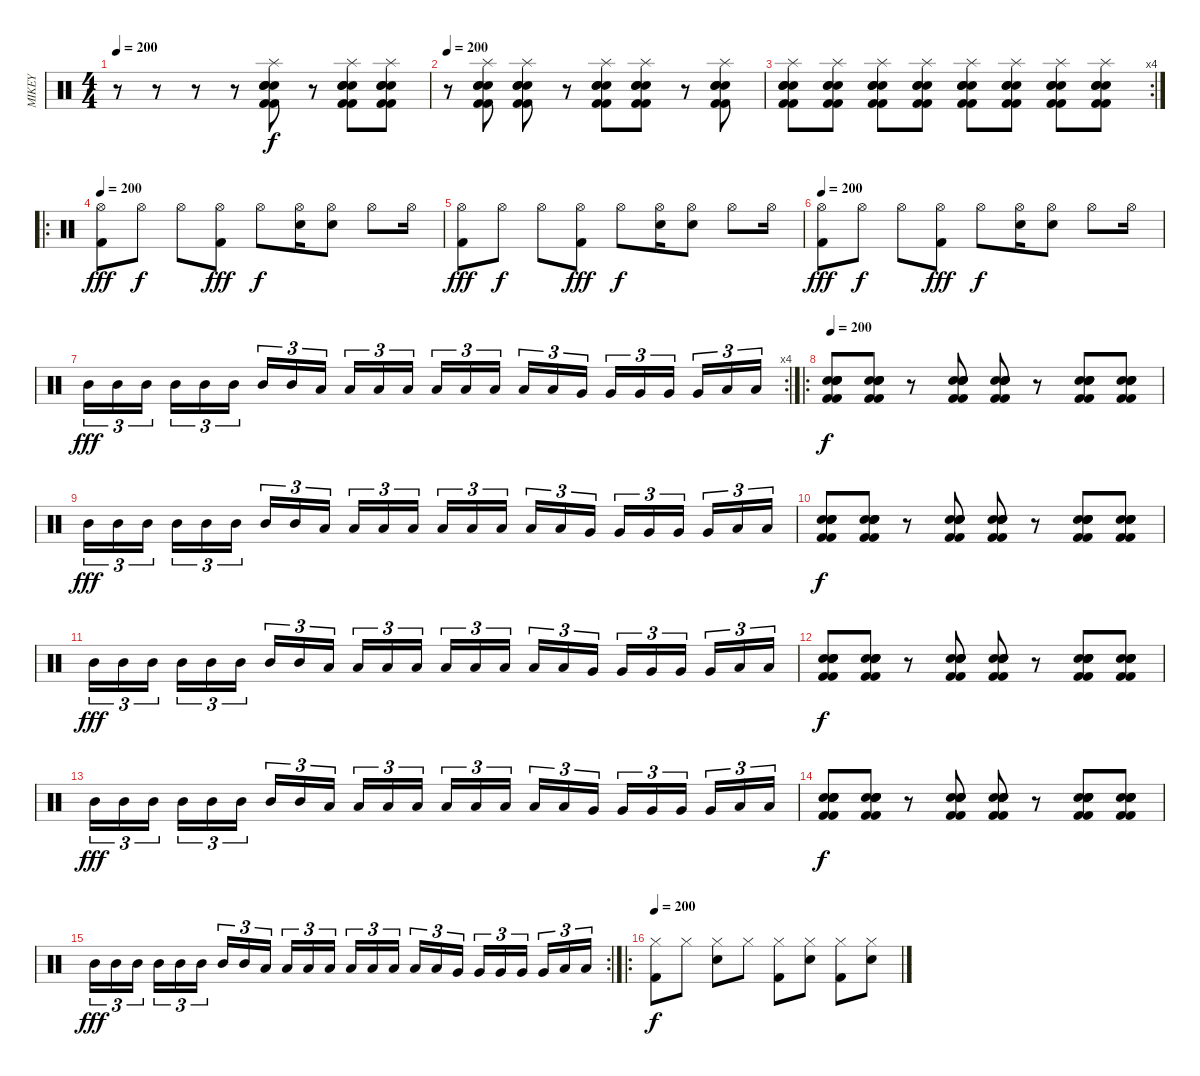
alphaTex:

\track ("MIKEY" "MIKEY") {instrument percussion}
\staff {score}
\articulation defaults
\ts (4 4)
\tempo 200
\clef neutral
\ks c
r.8{dy f} r.8 r.8 r.8 ("Splash (hit)" "Snare (hit) 2" "Electric Snare (hit)" "Kick (hit) 2" "Snare (hit) 2" "Kick (hit) 2").8 r.8 ("Splash (hit)" "Snare (hit) 2" "Electric Snare (hit)" "Kick (hit) 2" "Snare (hit) 2" "Kick (hit) 2").8 ("Splash (hit)" "Snare (hit) 2" "Electric Snare (hit)" "Kick (hit) 2" "Snare (hit) 2" "Kick (hit) 2").8 |
\tempo 200
r.8 ("Splash (hit)" "Snare (hit) 2" "Electric Snare (hit)" "Kick (hit) 2" "Snare (hit) 2" "Kick (hit) 2").8 ("Splash (hit)" "Snare (hit) 2" "Electric Snare (hit)" "Kick (hit) 2" "Snare (hit) 2" "Kick (hit) 2").8 r.8 ("Splash (hit)" "Snare (hit) 2" "Electric Snare (hit)" "Kick (hit) 2" "Snare (hit) 2" "Kick (hit) 2").8 ("Splash (hit)" "Snare (hit) 2" "Electric Snare (hit)" "Kick (hit) 2" "Snare (hit) 2" "Kick (hit) 2").8 r.8 ("Splash (hit)" "Snare (hit) 2" "Electric Snare (hit)" "Kick (hit) 2" "Snare (hit) 2" "Kick (hit) 2").8 |
\rc 4
("Splash (hit)" "Snare (hit) 2" "Electric Snare (hit)" "Kick (hit) 2" "Snare (hit) 2" "Kick (hit) 2").8 ("Splash (hit)" "Snare (hit) 2" "Electric Snare (hit)" "Kick (hit) 2" "Snare (hit) 2" "Kick (hit) 2").8 ("Splash (hit)" "Snare (hit) 2" "Electric Snare (hit)" "Kick (hit) 2" "Snare (hit) 2" "Kick (hit) 2").8 ("Splash (hit)" "Snare (hit) 2" "Electric Snare (hit)" "Kick (hit) 2" "Snare (hit) 2" "Kick (hit) 2").8 ("Splash (hit)" "Snare (hit) 2" "Electric Snare (hit)" "Kick (hit) 2" "Snare (hit) 2" "Kick (hit) 2").8 ("Splash (hit)" "Snare (hit) 2" "Electric Snare (hit)" "Kick (hit) 2" "Snare (hit) 2" "Kick (hit) 2").8 ("Splash (hit)" "Snare (hit) 2" "Electric Snare (hit)" "Kick (hit) 2" "Snare (hit) 2" "Kick (hit) 2").8 ("Splash (hit)" "Snare (hit) 2" "Electric Snare (hit)" "Kick (hit) 2" "Snare (hit) 2" "Kick (hit) 2").8 |
\ro
\tempo 200
("Kick (hit) 2" "Hi-Hat (open)").8{dy fff} "Hi-Hat (open)".8{dy f} "Hi-Hat (open)".8 ("Kick (hit) 2" "Hi-Hat (open)").8{dy fff} "Hi-Hat (open)".8{dy f} ("Electric Snare (hit)" "Hi-Hat (open)").16 ("Electric Snare (hit)" "Hi-Hat (open)").8 "Hi-Hat (open)".8 "Hi-Hat (open)".16 |
("Kick (hit) 2" "Hi-Hat (open)").8{dy fff} "Hi-Hat (open)".8{dy f} "Hi-Hat (open)".8 ("Kick (hit) 2" "Hi-Hat (open)").8{dy fff} "Hi-Hat (open)".8{dy f} ("Electric Snare (hit)" "Hi-Hat (open)").16 ("Electric Snare (hit)" "Hi-Hat (open)").8 "Hi-Hat (open)".8 "Hi-Hat (open)".16 |
\tempo 200
("Kick (hit) 2" "Hi-Hat (open)").8{dy fff} "Hi-Hat (open)".8{dy f} "Hi-Hat (open)".8 ("Kick (hit) 2" "Hi-Hat (open)").8{dy fff} "Hi-Hat (open)".8{dy f} ("Electric Snare (hit)" "Hi-Hat (open)").16 ("Electric Snare (hit)" "Hi-Hat (open)").8 "Hi-Hat (open)".8 "Hi-Hat (open)".16 |
\rc 4 "Mid Tom (hit)".16{tu (3 2) dy fff} "Mid Tom (hit)".16{tu (3 2)} "Mid Tom (hit)".16{tu (3 2)} "Mid Tom (hit)".16{tu (3 2)} "Mid Tom (hit)".16{tu (3 2)} "Mid Tom (hit)".16{tu (3 2)} "Mid Tom (hit)".16{tu (3 2)} "Mid Tom (hit)".16{tu (3 2)} "Low Tom (hit)".16{tu (3 2)} "Low Tom (hit)".16{tu (3 2)} "Low Tom (hit)".16{tu (3 2)} "Low Tom (hit)".16{tu (3 2)} "Low Tom (hit)".16{tu (3 2)} "Low Tom (hit)".16{tu (3 2)} "Low Tom (hit)".16{tu (3 2)} "Low Tom (hit)".16{tu (3 2)} "Low Tom (hit)".16{tu (3 2)} "Very Low Tom (hit)".16{tu (3 2)} "Very Low Tom (hit)".16{tu (3 2)} "Very Low Tom (hit)".16{tu (3 2)} "Very Low Tom (hit)".16{tu (3 2)} "Very Low Tom (hit)".16{tu (3 2)} "Low Floor Tom (hit)".16{tu (3 2)} "Low Floor Tom (hit)".16{tu (3 2)}
|
\ro
\tempo 200
("Snare (hit) 2" "Snare (hit) 2" "Kick (hit) 2" "Electric Snare (hit)" "Snare (hit) 2" "Kick (hit) 2").8{dy f} ("Snare (hit) 2" "Snare (hit) 2" "Kick (hit) 2" "Electric Snare (hit)" "Snare (hit) 2" "Kick (hit) 2").8 r.8 ("Snare (hit) 2" "Snare (hit) 2" "Kick (hit) 2" "Electric Snare (hit)" "Snare (hit) 2" "Kick (hit) 2").8 ("Snare (hit) 2" "Snare (hit) 2" "Kick (hit) 2" "Electric Snare (hit)" "Snare (hit) 2" "Kick (hit) 2").8 r.8 ("Snare (hit) 2" "Snare (hit) 2" "Kick (hit) 2" "Electric Snare (hit)" "Snare (hit) 2" "Kick (hit) 2").8 ("Snare (hit) 2" "Snare (hit) 2" "Kick (hit) 2" "Electric Snare (hit)" "Snare (hit) 2" "Kick (hit) 2").8 |
"Mid Tom (hit)".16{tu (3 2) dy fff} "Mid Tom (hit)".16{tu (3 2)} "Mid Tom (hit)".16{tu (3 2)} "Mid Tom (hit)".16{tu (3 2)} "Mid Tom (hit)".16{tu (3 2)} "Mid Tom (hit)".16{tu (3 2)} "Mid Tom (hit)".16{tu (3 2)} "Mid Tom (hit)".16{tu (3 2)} "Low Tom (hit)".16{tu (3 2)} "Low Tom (hit)".16{tu (3 2)} "Low Tom (hit)".16{tu (3 2)} "Low Tom (hit)".16{tu (3 2)} "Low Tom (hit)".16{tu (3 2)} "Low Tom (hit)".16{tu (3 2)} "Low Tom (hit)".16{tu (3 2)} "Low Tom (hit)".16{tu (3 2)} "Low Tom (hit)".16{tu (3 2)} "Very Low Tom (hit)".16{tu (3 2)} "Very Low Tom (hit)".16{tu (3 2)} "Very Low Tom (hit)".16{tu (3 2)} "Very Low Tom (hit)".16{tu (3 2)} "Very Low Tom (hit)".16{tu (3 2)} "Low Floor Tom (hit)".16{tu (3 2)} "Low Floor Tom (hit)".16{tu (3 2)} |
("Snare (hit) 2" "Snare (hit) 2" "Kick (hit) 2" "Electric Snare (hit)" "Snare (hit) 2" "Kick (hit) 2").8{dy f} ("Snare (hit) 2" "Snare (hit) 2" "Kick (hit) 2" "Electric Snare (hit)" "Snare (hit) 2" "Kick (hit) 2").8 r.8 ("Snare (hit) 2" "Snare (hit) 2" "Kick (hit) 2" "Electric Snare (hit)" "Snare (hit) 2" "Kick (hit) 2").8 ("Snare (hit) 2" "Snare (hit) 2" "Kick (hit) 2" "Electric Snare (hit)" "Snare (hit) 2" "Kick (hit) 2").8 r.8 ("Snare (hit) 2" "Snare (hit) 2" "Kick (hit) 2" "Electric Snare (hit)" "Snare (hit) 2" "Kick (hit) 2").8 ("Snare (hit) 2" "Snare (hit) 2" "Kick (hit) 2" "Electric Snare (hit)" "Snare (hit) 2" "Kick (hit) 2").8 |
"Mid Tom (hit)".16{tu (3 2) dy fff} "Mid Tom (hit)".16{tu (3 2)} "Mid Tom (hit)".16{tu (3 2)} "Mid Tom (hit)".16{tu (3 2)} "Mid Tom (hit)".16{tu (3 2)} "Mid Tom (hit)".16{tu (3 2)} "Mid Tom (hit)".16{tu (3 2)} "Mid Tom (hit)".16{tu (3 2)} "Low Tom (hit)".16{tu (3 2)} "Low Tom (hit)".16{tu (3 2)} "Low Tom (hit)".16{tu (3 2)} "Low Tom (hit)".16{tu (3 2)} "Low Tom (hit)".16{tu (3 2)} "Low Tom (hit)".16{tu (3 2)} "Low Tom (hit)".16{tu (3 2)} "Low Tom (hit)".16{tu (3 2)} "Low Tom (hit)".16{tu (3 2)} "Very Low Tom (hit)".16{tu (3 2)} "Very Low Tom (hit)".16{tu (3 2)} "Very Low Tom (hit)".16{tu (3 2)} "Very Low Tom (hit)".16{tu (3 2)} "Very Low Tom (hit)".16{tu (3 2)} "Low Floor Tom (hit)".16{tu (3 2)} "Low Floor Tom (hit)".16{tu (3 2)} |
("Snare (hit) 2" "Snare (hit) 2" "Kick (hit) 2" "Electric Snare (hit)" "Snare (hit) 2" "Kick (hit) 2").8{dy f} ("Snare (hit) 2" "Snare (hit) 2" "Kick (hit) 2" "Electric Snare (hit)" "Snare (hit) 2" "Kick (hit) 2").8 r.8 ("Snare (hit) 2" "Snare (hit) 2" "Kick (hit) 2" "Electric Snare (hit)" "Snare (hit) 2" "Kick (hit) 2").8 ("Snare (hit) 2" "Snare (hit) 2" "Kick (hit) 2" "Electric Snare (hit)" "Snare (hit) 2" "Kick (hit) 2").8 r.8 ("Snare (hit) 2" "Snare (hit) 2" "Kick (hit) 2" "Electric Snare (hit)" "Snare (hit) 2" "Kick (hit) 2").8 ("Snare (hit) 2" "Snare (hit) 2" "Kick (hit) 2" "Electric Snare (hit)" "Snare (hit) 2" "Kick (hit) 2").8 |
"Mid Tom (hit)".16{tu (3 2) dy fff} "Mid Tom (hit)".16{tu (3 2)} "Mid Tom (hit)".16{tu (3 2)} "Mid Tom (hit)".16{tu (3 2)} "Mid Tom (hit)".16{tu (3 2)} "Mid Tom (hit)".16{tu (3 2)} "Mid Tom (hit)".16{tu (3 2)} "Mid Tom (hit)".16{tu (3 2)} "Low Tom (hit)".16{tu (3 2)} "Low Tom (hit)".16{tu (3 2)} "Low Tom (hit)".16{tu (3 2)} "Low Tom (hit)".16{tu (3 2)} "Low Tom (hit)".16{tu (3 2)} "Low Tom (hit)".16{tu (3 2)} "Low Tom (hit)".16{tu (3 2)} "Low Tom (hit)".16{tu (3 2)} "Low Tom (hit)".16{tu (3 2)} "Very Low Tom (hit)".16{tu (3 2)} "Very Low Tom (hit)".16{tu (3 2)} "Very Low Tom (hit)".16{tu (3 2)} "Very Low Tom (hit)".16{tu (3 2)} "Very Low Tom (hit)".16{tu (3 2)} "Low Floor Tom (hit)".16{tu (3 2)} "Low Floor Tom (hit)".16{tu (3 2)} |
("Snare (hit) 2" "Snare (hit) 2" "Kick (hit) 2" "Electric Snare (hit)" "Snare (hit) 2" "Kick (hit) 2").8{dy f} ("Snare (hit) 2" "Snare (hit) 2" "Kick (hit) 2" "Electric Snare (hit)" "Snare (hit) 2" "Kick (hit) 2").8 r.8 ("Snare (hit) 2" "Snare (hit) 2" "Kick (hit) 2" "Electric Snare (hit)" "Snare (hit) 2" "Kick (hit) 2").8 ("Snare (hit) 2" "Snare (hit) 2" "Kick (hit) 2" "Electric Snare (hit)" "Snare (hit) 2" "Kick (hit) 2").8 r.8 ("Snare (hit) 2" "Snare (hit) 2" "Kick (hit) 2" "Electric Snare (hit)" "Snare (hit) 2" "Kick (hit) 2").8 ("Snare (hit) 2" "Snare (hit) 2" "Kick (hit) 2" "Electric Snare (hit)" "Snare (hit) 2" "Kick (hit) 2").8 |
\rc 2 "Mid Tom (hit)".16{tu (3 2) dy fff} "Mid Tom (hit)".16{tu (3 2)} "Mid Tom (hit)".16{tu (3 2)} "Mid Tom (hit)".16{tu (3 2)} "Mid Tom (hit)".16{tu (3 2)} "Mid Tom (hit)".16{tu (3 2)} "Mid Tom (hit)".16{tu (3 2)} "Mid Tom (hit)".16{tu (3 2)} "Low Tom (hit)".16{tu (3 2)} "Low Tom (hit)".16{tu (3 2)} "Low Tom (hit)".16{tu (3 2)} "Low Tom (hit)".16{tu (3 2)} "Low Tom (hit)".16{tu (3 2)} "Low Tom (hit)".16{tu (3 2)} "Low Tom (hit)".16{tu (3 2)} "Low Tom (hit)".16{tu (3 2)} "Low Tom (hit)".16{tu (3 2)} "Very Low Tom (hit)".16{tu (3 2)} "Very Low Tom (hit)".16{tu (3 2)} "Very Low Tom (hit)".16{tu (3 2)} "Very Low Tom (hit)".16{tu (3 2)} "Very Low Tom (hit)".16{tu (3 2)} "Low Floor Tom (hit)".16{tu (3 2)} "Low Floor Tom (hit)".16{tu (3 2)}
|
\ro
\tempo 200
("Kick (hit) 2" "Hi-Hat (closed)").8{dy f} "Hi-Hat (closed)".8 ("Snare (hit) 2" "Hi-Hat (closed)").8 "Hi-Hat (closed)".8 ("Kick (hit) 2" "Hi-Hat (closed)").8 ("Snare (hit) 2" "Hi-Hat (closed)").8 ("Kick (hit) 2" "Hi-Hat (closed)").8 ("Snare (hit) 2" "Hi-Hat (closed)").8
